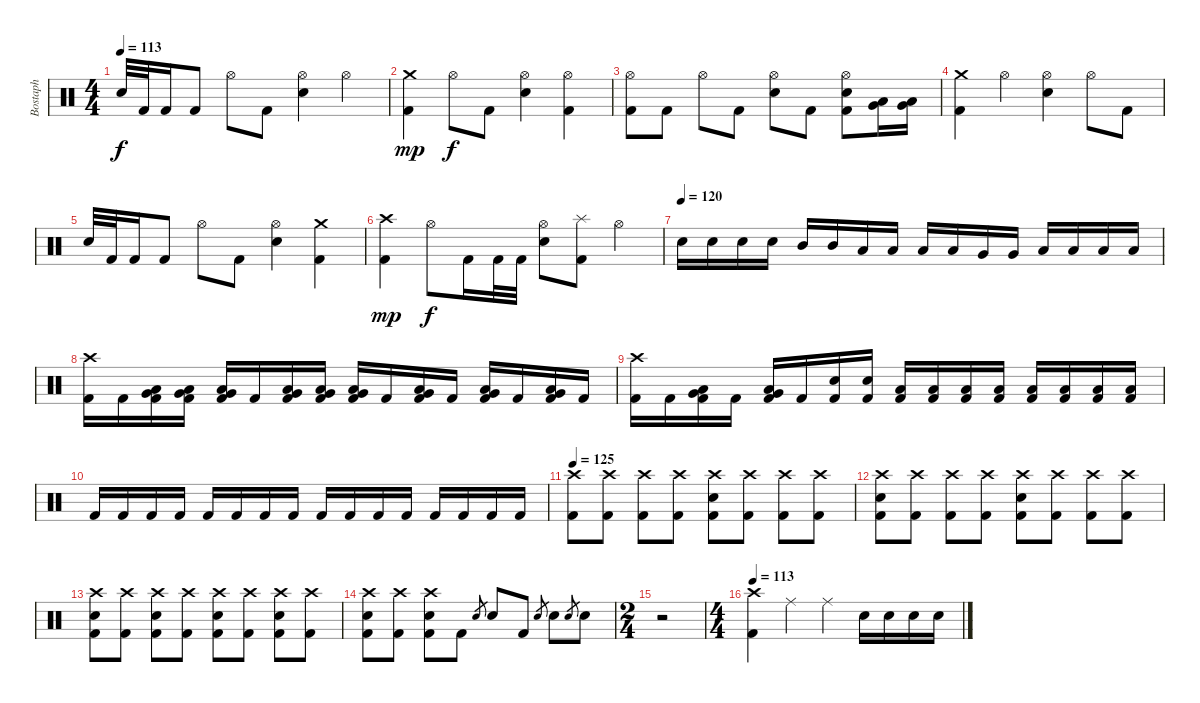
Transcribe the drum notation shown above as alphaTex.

\track ("Bostaph" "Bostaph") {instrument percussion}
\staff {score}
\articulation defaults
\ts (4 4)
\tempo 113
\clef neutral
\ks c "Electric Snare (hit)".32{dy f} "Kick (hit) 2".32 "Kick (hit) 2".16 "Kick (hit) 2".8 "Hi-Hat (open)".8 "Kick (hit) 2".8
("Electric Snare (hit)" "Hi-Hat (open)").4 "Hi-Hat (open)".4 |
("Kick (hit) 2" "Crash medium (hit)").4{dy mp} "Hi-Hat (open)".8{dy f} "Kick (hit) 2".8 ("Electric Snare (hit)" "Hi-Hat (open)").4 ("Kick (hit) 2" "Hi-Hat (open)").4 |
("Hi-Hat (open)" "Kick (hit) 2").8 "Kick (hit) 2".8 "Hi-Hat (open)".8 "Kick (hit) 2".8 ("Hi-Hat (open)" "Electric Snare (hit)").8 "Kick (hit) 2".8 ("Hi-Hat (open)" "Electric Snare (hit)" "Kick (hit) 2").8 ("Very Low Tom (hit)" "Low Tom (hit)").16 ("Low Tom (hit)" "Very Low Tom (hit)").16 |
("Crash medium (hit)" "Kick (hit) 2").4 "Hi-Hat (open)".4 ("Electric Snare (hit)" "Hi-Hat (open)").4 "Hi-Hat (open)".8 "Kick (hit) 2".8 |
"Electric Snare (hit)".32 "Kick (hit) 2".32 "Kick (hit) 2".16 "Kick (hit) 2".8 "Hi-Hat (open)".8 "Kick (hit) 2".8 ("Electric Snare (hit)" "Hi-Hat (open)").4 ("Crash medium (hit)" "Kick (hit) 2").4 |
("Kick (hit) 2" "Crash high (hit)").4{dy mp} "Hi-Hat (open)".8{dy f} "Kick (hit) 2".16 "Kick (hit) 2".32 "Kick (hit) 2".32 ("Electric Snare (hit)" "Hi-Hat (open)").8 ("Splash (hit)" "Kick (hit) 2").8 "Hi-Hat (open)".4 |
\tempo (120)
"Electric Snare (hit)".16 "Electric Snare (hit)".16 "Electric Snare (hit)".16 "Electric Snare (hit)".16 "Mid Tom (hit)".16 "Mid Tom (hit)".16 "Low Tom (hit)".16 "Low Tom (hit)".16 "Low Tom (hit)".16 "Low Tom (hit)".16 "Very Low Tom (hit)".16 "Very Low Tom (hit)".16 "Low Floor Tom (hit)".16 "Low Floor Tom (hit)".16 "Low Floor Tom (hit)".16 "Low Floor Tom (hit)".16 |
("Crash high (hit)" "Kick (hit) 2").16 "Kick (hit) 2".16 ("Very Low Tom (hit)" "Low Floor Tom (hit)" "Kick (hit) 2").16 ("Very Low Tom (hit)" "Low Floor Tom (hit)" "Kick (hit) 2").16 ("Low Floor Tom (hit)" "Very Low Tom (hit)" "Kick (hit) 2").16 "Kick (hit) 2".16 ("Very Low Tom (hit)" "Low Floor Tom (hit)" "Kick (hit) 2").16 ("Very Low Tom (hit)" "Low Floor Tom (hit)" "Kick (hit) 2").16 ("Very Low Tom (hit)" "Low Floor Tom (hit)" "Kick (hit) 2").16 "Kick (hit) 2".16 ("Very Low Tom (hit)" "Low Floor Tom (hit)" "Kick (hit) 2").16 "Kick (hit) 2".16 ("Very Low Tom (hit)" "Low Floor Tom (hit)" "Kick (hit) 2").16 "Kick (hit) 2".16 ("Low Floor Tom (hit)" "Very Low Tom (hit)" "Kick (hit) 2").16 "Kick (hit) 2".16 |
("Crash high (hit)" "Kick (hit) 2").16 "Kick (hit) 2".16 ("Very Low Tom (hit)" "Low Floor Tom (hit)" "Kick (hit) 2").16 "Kick (hit) 2".16 ("Very Low Tom (hit)" "Low Floor Tom (hit)" "Kick (hit) 2").16 "Kick (hit) 2".16 ("Electric Snare (hit)" "Kick (hit) 2").16 ("Electric Snare (hit)" "Kick (hit) 2").16 ("Low Floor Tom (hit)" "Kick (hit) 2").16 ("Low Floor Tom (hit)" "Kick (hit) 2").16 ("Low Floor Tom (hit)" "Kick (hit) 2").16 ("Low Floor Tom (hit)" "Kick (hit) 2").16 ("Low Floor Tom (hit)" "Kick (hit) 2").16 ("Low Floor Tom (hit)" "Kick (hit) 2").16 ("Low Floor Tom (hit)" "Kick (hit) 2").16 ("Low Floor Tom (hit)" "Kick (hit) 2").16 |
"Kick (hit) 2".16 "Kick (hit) 2".16 "Kick (hit) 2".16 "Kick (hit) 2".16 "Kick (hit) 2".16 "Kick (hit) 2".16 "Kick (hit) 2".16 "Kick (hit) 2".16 "Kick (hit) 2".16 "Kick (hit) 2".16 "Kick (hit) 2".16 "Kick (hit) 2".16 "Kick (hit) 2".16 "Kick (hit) 2".16 "Kick (hit) 2".16 "Kick (hit) 2".16 |
\tempo 125
("Crash high (hit)" "Kick (hit) 2").8 ("Crash high (hit)" "Kick (hit) 2").8 ("Crash high (hit)" "Kick (hit) 2").8 ("Crash high (hit)" "Kick (hit) 2").8 ("Crash high (hit)" "Electric Snare (hit)" "Kick (hit) 2").8 ("Crash high (hit)" "Kick (hit) 2").8 ("Crash high (hit)" "Kick (hit) 2").8 ("Crash high (hit)" "Kick (hit) 2").8 |
("Crash high (hit)" "Electric Snare (hit)" "Kick (hit) 2").8 ("Crash high (hit)" "Kick (hit) 2").8 ("Crash high (hit)" "Kick (hit) 2").8 ("Crash high (hit)" "Kick (hit) 2").8 ("Crash high (hit)" "Electric Snare (hit)" "Kick (hit) 2").8 ("Crash high (hit)" "Kick (hit) 2").8 ("Crash high (hit)" "Kick (hit) 2").8 ("Crash high (hit)" "Kick (hit) 2").8 |
("Crash high (hit)" "Electric Snare (hit)" "Kick (hit) 2").8 ("Crash high (hit)" "Kick (hit) 2").8 ("Crash high (hit)" "Electric Snare (hit)" "Kick (hit) 2").8 ("Crash high (hit)" "Kick (hit) 2").8 ("Crash high (hit)" "Electric Snare (hit)" "Kick (hit) 2").8 ("Crash high (hit)" "Kick (hit) 2").8 ("Crash high (hit)" "Electric Snare (hit)" "Kick (hit) 2").8 ("Crash high (hit)" "Kick (hit) 2").8 |
("Crash high (hit)" "Electric Snare (hit)" "Kick (hit) 2").8 ("Crash high (hit)" "Kick (hit) 2").8 ("Crash high (hit)" "Electric Snare (hit)" "Kick (hit) 2").8 "Kick (hit) 2".8 "Electric Snare (hit)".8{gr} "Electric Snare (hit)".8 "Kick (hit) 2".8 "Electric Snare (hit)".8{gr} "Electric Snare (hit)".8 "Electric Snare (hit)".8{gr} "Electric Snare (hit)".8 |
\ts (2 4)
r.2 |
\ts (4 4)
\tempo 113
("Crash high (hit)" "Kick (hit) 2").4 "Ride (middle)".4 "Ride (middle)".4 "Electric Snare (hit)".16 "Electric Snare (hit)".16 "Electric Snare (hit)".16 "Electric Snare (hit)".16
